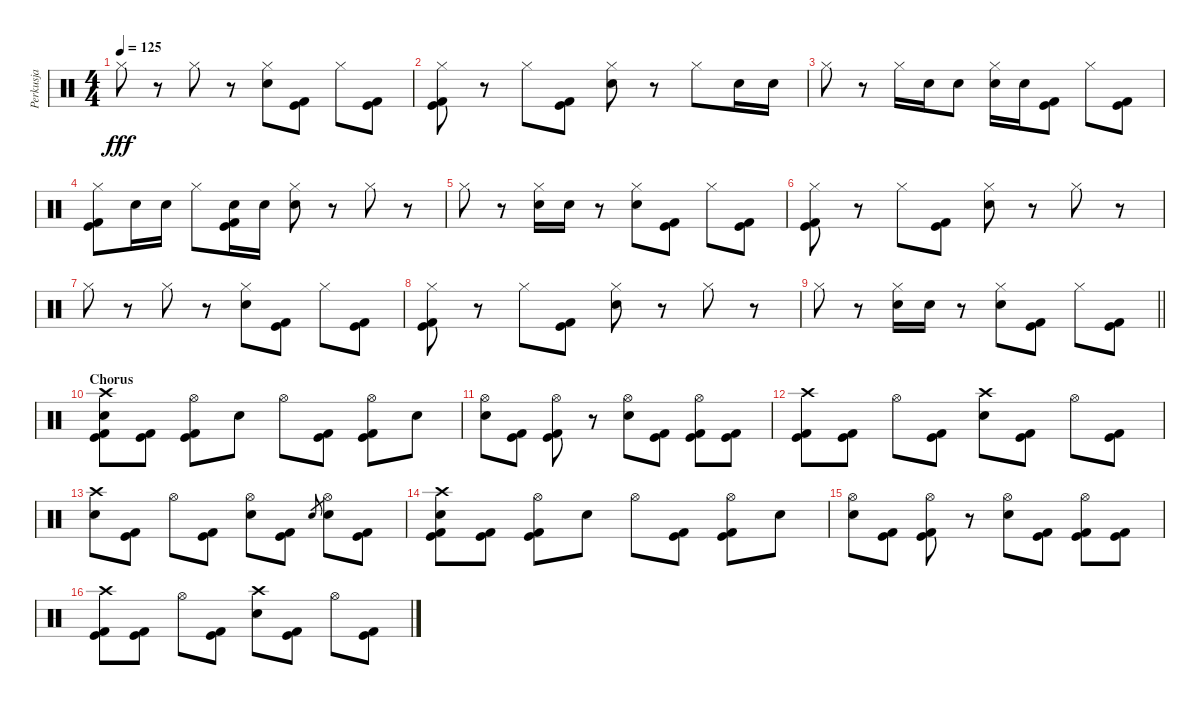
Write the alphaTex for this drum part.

\track ("Perkusja" "Perkusja") {instrument percussion}
\staff {score}
\articulation defaults
\ts (4 4)
\tempo 125
\clef neutral
\ks c "Hi-Hat (closed)".8{dy fff}
r.8 "Hi-Hat (closed)".8 r.8 ("Hi-Hat (closed)" "Electric Snare (hit)").8 ("Kick (hit)" "Kick (hit) 2").8 "Hi-Hat (closed)".8 ("Kick (hit)" "Kick (hit) 2").8 |
("Hi-Hat (closed)" "Kick (hit)" "Kick (hit) 2").8 r.8 "Hi-Hat (closed)".8 ("Kick (hit)" "Kick (hit) 2").8 ("Hi-Hat (closed)" "Electric Snare (hit)").8 r.8 "Hi-Hat (closed)".8 "Electric Snare (hit)".16 "Electric Snare (hit)".16 |
"Hi-Hat (closed)".8 r.8 "Hi-Hat (closed)".16 "Electric Snare (hit)".16 "Electric Snare (hit)".8 ("Hi-Hat (closed)" "Electric Snare (hit)").16 "Electric Snare (hit)".16 ("Kick (hit)" "Kick (hit) 2").8 "Hi-Hat (closed)".8 ("Kick (hit)" "Kick (hit) 2").8 |
("Hi-Hat (closed)" "Kick (hit)" "Kick (hit) 2").8 "Electric Snare (hit)".16 "Electric Snare (hit)".16 "Hi-Hat (closed)".8 ("Electric Snare (hit)" "Kick (hit)" "Kick (hit) 2").16 "Electric Snare (hit)".16 ("Hi-Hat (closed)" "Electric Snare (hit)").8 r.8 "Hi-Hat (closed)".8 r.8 |
"Hi-Hat (closed)".8 r.8 ("Hi-Hat (closed)" "Electric Snare (hit)").16 "Electric Snare (hit)".16 r.8 ("Hi-Hat (closed)" "Electric Snare (hit)").8 ("Kick (hit)" "Kick (hit) 2").8 "Hi-Hat (closed)".8 ("Kick (hit)" "Kick (hit) 2").8 |
("Hi-Hat (closed)" "Kick (hit)" "Kick (hit) 2").8 r.8 "Hi-Hat (closed)".8 ("Kick (hit)" "Kick (hit) 2").8 ("Hi-Hat (closed)" "Electric Snare (hit)").8 r.8 "Hi-Hat (closed)".8 r.8 |
"Hi-Hat (closed)".8 r.8 "Hi-Hat (closed)".8 r.8 ("Hi-Hat (closed)" "Electric Snare (hit)").8 ("Kick (hit)" "Kick (hit) 2").8 "Hi-Hat (closed)".8 ("Kick (hit)" "Kick (hit) 2").8 |
("Hi-Hat (closed)" "Kick (hit)" "Kick (hit) 2").8 r.8 "Hi-Hat (closed)".8 ("Kick (hit)" "Kick (hit) 2").8 ("Hi-Hat (closed)" "Electric Snare (hit)").8 r.8 "Hi-Hat (closed)".8 r.8 |
\barLineRight lightlight "Hi-Hat (closed)".8
r.8 ("Hi-Hat (closed)" "Electric Snare (hit)").16 "Electric Snare (hit)".16 r.8 ("Hi-Hat (closed)" "Electric Snare (hit)").8 ("Kick (hit)" "Kick (hit) 2").8 "Hi-Hat (closed)".8 ("Kick (hit)" "Kick (hit) 2").8 |
\section ("" "Chorus")
("Crash high (hit)" "Electric Snare (hit)" "Kick (hit)" "Kick (hit) 2").8 ("Kick (hit)" "Kick (hit) 2").8 ("Hi-Hat (open)" "Kick (hit)" "Kick (hit) 2").8 "Electric Snare (hit)".8 "Hi-Hat (open)".8 ("Kick (hit)" "Kick (hit) 2").8 ("Hi-Hat (open)" "Kick (hit)" "Kick (hit) 2").8 "Electric Snare (hit)".8 |
("Hi-Hat (open)" "Electric Snare (hit)").8 ("Kick (hit)" "Kick (hit) 2").8 ("Hi-Hat (open)" "Kick (hit)" "Kick (hit) 2").8 r.8 ("Hi-Hat (open)" "Electric Snare (hit)").8 ("Kick (hit)" "Kick (hit) 2").8 ("Hi-Hat (open)" "Kick (hit)" "Kick (hit) 2").8 ("Kick (hit)" "Kick (hit) 2").8 |
("Crash high (hit)" "Kick (hit)" "Kick (hit) 2").8 ("Kick (hit)" "Kick (hit) 2").8 "Hi-Hat (open)".8 ("Kick (hit)" "Kick (hit) 2").8 ("Crash high (hit)" "Electric Snare (hit)").8 ("Kick (hit)" "Kick (hit) 2").8 "Hi-Hat (open)".8 ("Kick (hit)" "Kick (hit) 2").8 |
("Crash high (hit)" "Electric Snare (hit)").8 ("Kick (hit)" "Kick (hit) 2").8 "Hi-Hat (open)".8 ("Kick (hit)" "Kick (hit) 2").8 ("Hi-Hat (open)" "Electric Snare (hit)").8 ("Kick (hit)" "Kick (hit) 2").8 "Electric Snare (hit)".8{gr} ("Hi-Hat (open)" "Electric Snare (hit)").8 ("Kick (hit)" "Kick (hit) 2").8 |
("Crash high (hit)" "Electric Snare (hit)" "Kick (hit)" "Kick (hit) 2").8 ("Kick (hit)" "Kick (hit) 2").8 ("Hi-Hat (open)" "Kick (hit)" "Kick (hit) 2").8 "Electric Snare (hit)".8 "Hi-Hat (open)".8 ("Kick (hit)" "Kick (hit) 2").8 ("Hi-Hat (open)" "Kick (hit)" "Kick (hit) 2").8 "Electric Snare (hit)".8 |
("Hi-Hat (open)" "Electric Snare (hit)").8 ("Kick (hit)" "Kick (hit) 2").8 ("Hi-Hat (open)" "Kick (hit)" "Kick (hit) 2").8 r.8 ("Hi-Hat (open)" "Electric Snare (hit)").8 ("Kick (hit)" "Kick (hit) 2").8 ("Hi-Hat (open)" "Kick (hit)" "Kick (hit) 2").8 ("Kick (hit)" "Kick (hit) 2").8 |
("Crash high (hit)" "Kick (hit)" "Kick (hit) 2").8 ("Kick (hit)" "Kick (hit) 2").8 "Hi-Hat (open)".8 ("Kick (hit)" "Kick (hit) 2").8 ("Crash high (hit)" "Electric Snare (hit)").8 ("Kick (hit)" "Kick (hit) 2").8 "Hi-Hat (open)".8 ("Kick (hit)" "Kick (hit) 2").8
